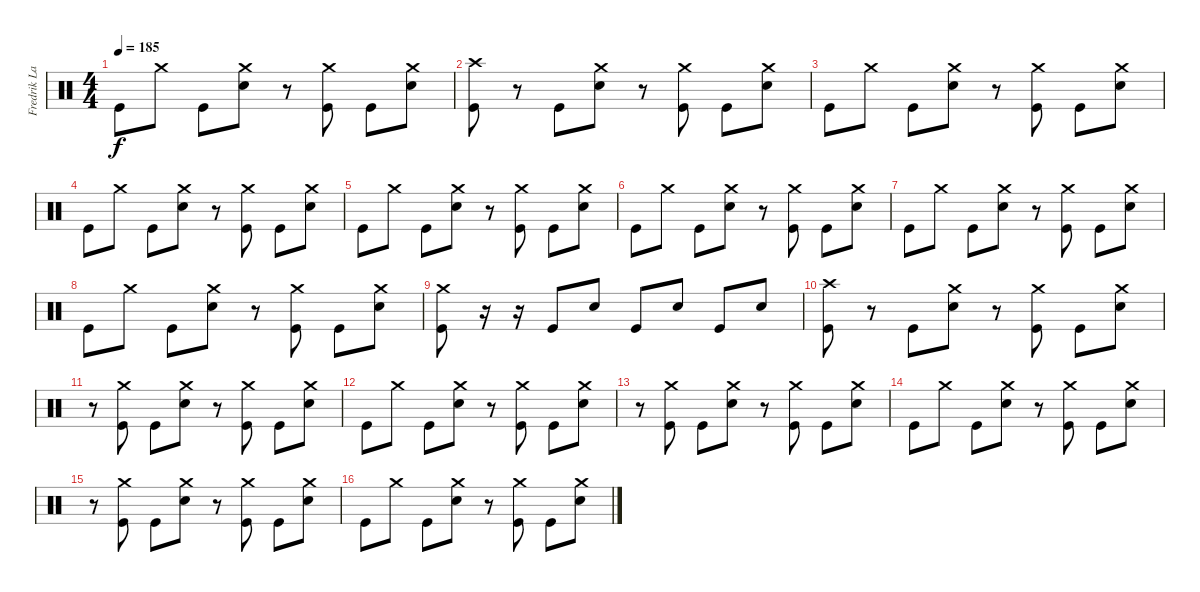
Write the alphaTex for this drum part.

\track ("Fredrik Larzon" "Fredrik La") {instrument percussion}
\staff {score}
\articulation defaults
\ts (4 4)
\tempo 185
\clef neutral
\ks c "Kick (hit)".8{dy f} "Crash medium (hit)".8 "Kick (hit)".8
("Crash medium (hit)" "Electric Snare (hit)").8 r.8 ("Crash medium (hit)" "Kick (hit)").8 "Kick (hit)".8 ("Crash medium (hit)" "Electric Snare (hit)").8 |
("Crash high (hit)" "Kick (hit)").8 r.8 "Kick (hit)".8 ("Crash medium (hit)" "Electric Snare (hit)").8 r.8 ("Crash medium (hit)" "Kick (hit)").8 "Kick (hit)".8 ("Crash medium (hit)" "Electric Snare (hit)").8 |
"Kick (hit)".8 "Crash medium (hit)".8 "Kick (hit)".8 ("Crash medium (hit)" "Electric Snare (hit)").8 r.8 ("Crash medium (hit)" "Kick (hit)").8 "Kick (hit)".8 ("Crash medium (hit)" "Electric Snare (hit)").8 |
"Kick (hit)".8 "Crash medium (hit)".8 "Kick (hit)".8 ("Crash medium (hit)" "Electric Snare (hit)").8 r.8 ("Crash medium (hit)" "Kick (hit)").8 "Kick (hit)".8 ("Crash medium (hit)" "Electric Snare (hit)").8 |
"Kick (hit)".8 "Crash medium (hit)".8 "Kick (hit)".8 ("Crash medium (hit)" "Electric Snare (hit)").8 r.8 ("Crash medium (hit)" "Kick (hit)").8 "Kick (hit)".8 ("Crash medium (hit)" "Electric Snare (hit)").8 |
"Kick (hit)".8 "Crash medium (hit)".8 "Kick (hit)".8 ("Crash medium (hit)" "Electric Snare (hit)").8 r.8 ("Crash medium (hit)" "Kick (hit)").8 "Kick (hit)".8 ("Crash medium (hit)" "Electric Snare (hit)").8 |
"Kick (hit)".8 "Crash medium (hit)".8 "Kick (hit)".8 ("Crash medium (hit)" "Electric Snare (hit)").8 r.8 ("Crash medium (hit)" "Kick (hit)").8 "Kick (hit)".8 ("Crash medium (hit)" "Electric Snare (hit)").8 |
"Kick (hit)".8 "Crash medium (hit)".8 "Kick (hit)".8 ("Crash medium (hit)" "Electric Snare (hit)").8 r.8 ("Crash medium (hit)" "Kick (hit)").8 "Kick (hit)".8 ("Crash medium (hit)" "Electric Snare (hit)").8 |
("Crash medium (hit)" "Kick (hit)").8 r.16 r.16 "Kick (hit)".8 "Electric Snare (hit)".8 "Kick (hit)".8 "Electric Snare (hit)".8 "Kick (hit)".8 "Electric Snare (hit)".8 |
("Crash high (hit)" "Kick (hit)").8 r.8 "Kick (hit)".8 ("Crash medium (hit)" "Electric Snare (hit)").8 r.8 ("Crash medium (hit)" "Kick (hit)").8 "Kick (hit)".8 ("Crash medium (hit)" "Electric Snare (hit)").8 |
r.8 ("Crash medium (hit)" "Kick (hit)").8 "Kick (hit)".8 ("Crash medium (hit)" "Electric Snare (hit)").8 r.8 ("Crash medium (hit)" "Kick (hit)").8 "Kick (hit)".8 ("Crash medium (hit)" "Electric Snare (hit)").8 |
"Kick (hit)".8 "Crash medium (hit)".8 "Kick (hit)".8 ("Crash medium (hit)" "Electric Snare (hit)").8 r.8 ("Crash medium (hit)" "Kick (hit)").8 "Kick (hit)".8 ("Crash medium (hit)" "Electric Snare (hit)").8 |
r.8 ("Crash medium (hit)" "Kick (hit)").8 "Kick (hit)".8 ("Crash medium (hit)" "Electric Snare (hit)").8 r.8 ("Crash medium (hit)" "Kick (hit)").8 "Kick (hit)".8 ("Crash medium (hit)" "Electric Snare (hit)").8 |
"Kick (hit)".8 "Crash medium (hit)".8 "Kick (hit)".8 ("Crash medium (hit)" "Electric Snare (hit)").8 r.8 ("Crash medium (hit)" "Kick (hit)").8 "Kick (hit)".8 ("Crash medium (hit)" "Electric Snare (hit)").8 |
r.8 ("Crash medium (hit)" "Kick (hit)").8 "Kick (hit)".8 ("Crash medium (hit)" "Electric Snare (hit)").8 r.8 ("Crash medium (hit)" "Kick (hit)").8 "Kick (hit)".8 ("Crash medium (hit)" "Electric Snare (hit)").8 |
"Kick (hit)".8 "Crash medium (hit)".8 "Kick (hit)".8 ("Crash medium (hit)" "Electric Snare (hit)").8 r.8 ("Crash medium (hit)" "Kick (hit)").8 "Kick (hit)".8 ("Crash medium (hit)" "Electric Snare (hit)").8
